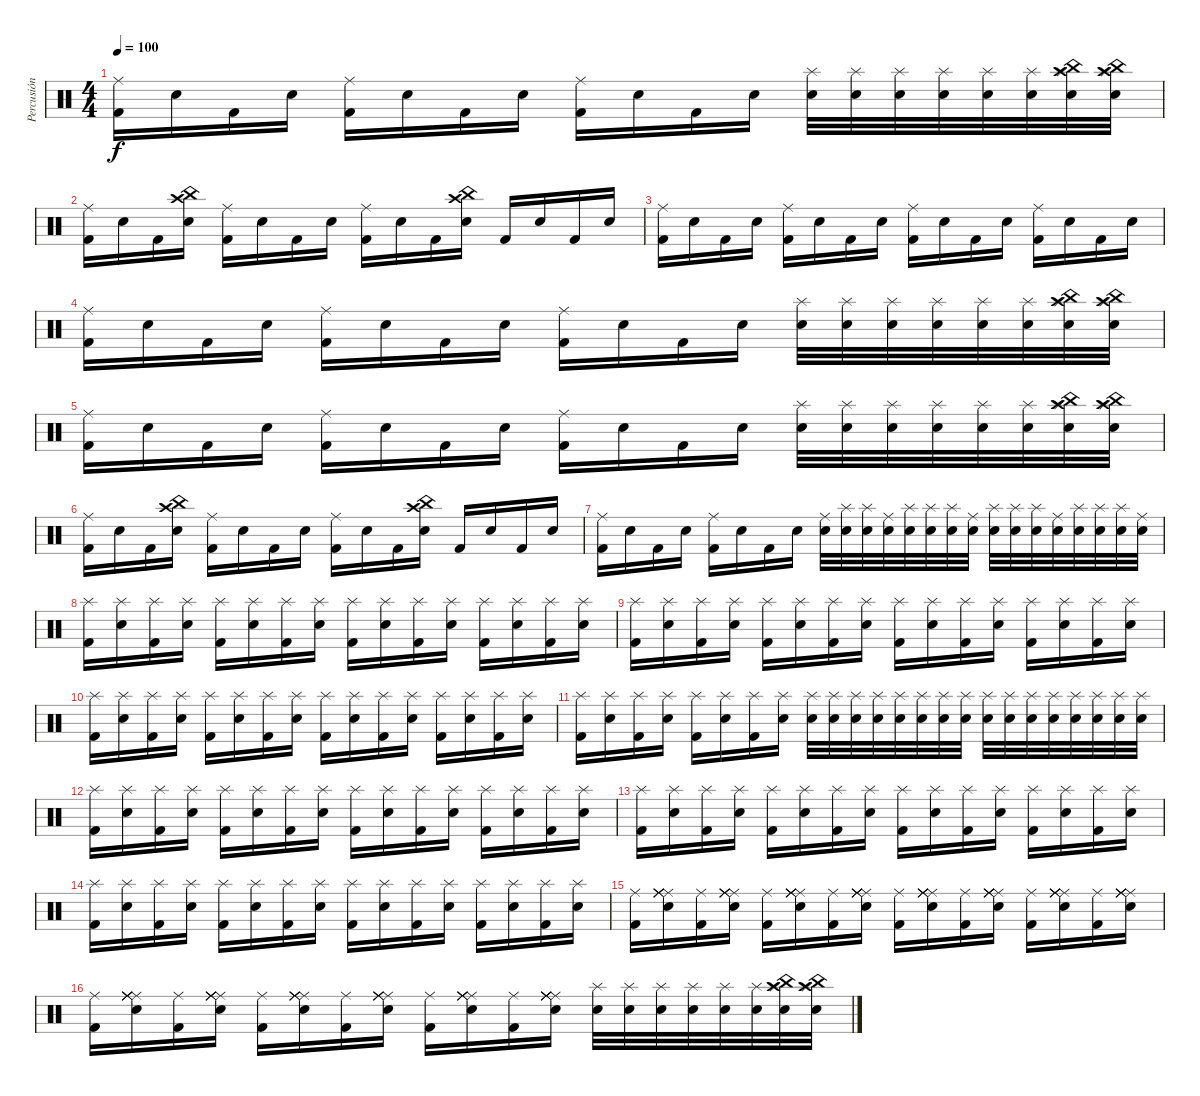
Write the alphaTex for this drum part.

\track ("Percusión" "Percusión") {instrument percussion}
\staff {score}
\articulation defaults
\ts (4 4)
\tempo 100
\clef neutral
\ks c
("Kick (hit) 2" "Ride (middle)").16{dy f} "Snare (hit) 2".16 "Kick (hit) 2".16 "Snare (hit) 2".16 ("Kick (hit) 2" "Ride (middle)").16 "Snare (hit) 2".16 "Kick (hit) 2".16 "Snare (hit) 2".16 ("Kick (hit) 2" "Ride (middle)").16 "Snare (hit) 2".16 "Kick (hit) 2".16 "Snare (hit) 2".16 ("Snare (hit) 2" "Splash (hit)").32 ("Electric Snare (hit)" "Splash (hit)").32 ("Snare (hit) 2" "Splash (hit)").32 ("Electric Snare (hit)" "Splash (hit)").32 ("Snare (hit) 2" "Splash (hit)").32 ("Electric Snare (hit)" "Splash (hit)").32 ("Snare (hit) 2" "Crash high (hit)" "China (hit)" "Splash (hit)").32 ("Electric Snare (hit)" "Crash high (hit)" "China (hit)" "Splash (hit)").32 |
("Kick (hit) 2" "Ride (middle)").16 "Snare (hit) 2".16 "Kick (hit) 2".16 ("Snare (hit) 2" "China (hit)" "Crash high (hit)").16 ("Kick (hit) 2" "Ride (middle)").16 "Snare (hit) 2".16 "Kick (hit) 2".16 "Snare (hit) 2".16 ("Kick (hit) 2" "Ride (middle)").16 "Snare (hit) 2".16 "Kick (hit) 2".16 ("Snare (hit) 2" "China (hit)" "Crash high (hit)").16 "Kick (hit) 2".16 "Snare (hit) 2".16 "Kick (hit) 2".16 "Snare (hit) 2".16 |
("Kick (hit) 2" "Ride (middle)").16 "Snare (hit) 2".16 "Kick (hit) 2".16 "Snare (hit) 2".16 ("Kick (hit) 2" "Ride (middle)").16 "Snare (hit) 2".16 "Kick (hit) 2".16 "Snare (hit) 2".16 ("Kick (hit) 2" "Ride (middle)").16 "Snare (hit) 2".16 "Kick (hit) 2".16 "Snare (hit) 2".16 ("Kick (hit) 2" "Ride (middle)").16 "Snare (hit) 2".16 "Kick (hit) 2".16 "Snare (hit) 2".16 |
("Kick (hit) 2" "Ride (middle)").16 "Snare (hit) 2".16 "Kick (hit) 2".16 "Snare (hit) 2".16 ("Kick (hit) 2" "Ride (middle)").16 "Snare (hit) 2".16 "Kick (hit) 2".16 "Snare (hit) 2".16 ("Kick (hit) 2" "Ride (middle)").16 "Snare (hit) 2".16 "Kick (hit) 2".16 "Snare (hit) 2".16 ("Snare (hit) 2" "Splash (hit)").32 ("Electric Snare (hit)" "Splash (hit)").32 ("Snare (hit) 2" "Splash (hit)").32 ("Electric Snare (hit)" "Splash (hit)").32 ("Snare (hit) 2" "Splash (hit)").32 ("Electric Snare (hit)" "Splash (hit)").32 ("Snare (hit) 2" "Crash high (hit)" "China (hit)" "Splash (hit)").32 ("Electric Snare (hit)" "Crash high (hit)" "China (hit)" "Splash (hit)").32 |
("Kick (hit) 2" "Ride (middle)").16 "Snare (hit) 2".16 "Kick (hit) 2".16 "Snare (hit) 2".16 ("Kick (hit) 2" "Ride (middle)").16 "Snare (hit) 2".16 "Kick (hit) 2".16 "Snare (hit) 2".16 ("Kick (hit) 2" "Ride (middle)").16 "Snare (hit) 2".16 "Kick (hit) 2".16 "Snare (hit) 2".16 ("Snare (hit) 2" "Splash (hit)").32 ("Electric Snare (hit)" "Splash (hit)").32 ("Snare (hit) 2" "Splash (hit)").32 ("Electric Snare (hit)" "Splash (hit)").32 ("Snare (hit) 2" "Splash (hit)").32 ("Electric Snare (hit)" "Splash (hit)").32 ("Snare (hit) 2" "Crash high (hit)" "China (hit)" "Splash (hit)").32 ("Electric Snare (hit)" "Crash high (hit)" "China (hit)" "Splash (hit)").32 |
("Kick (hit) 2" "Ride (middle)").16 "Snare (hit) 2".16 "Kick (hit) 2".16 ("Snare (hit) 2" "China (hit)" "Crash high (hit)").16 ("Kick (hit) 2" "Ride (middle)").16 "Snare (hit) 2".16 "Kick (hit) 2".16 "Snare (hit) 2".16 ("Kick (hit) 2" "Ride (middle)").16 "Snare (hit) 2".16 "Kick (hit) 2".16 ("Snare (hit) 2" "China (hit)" "Crash high (hit)").16 "Kick (hit) 2".16 "Snare (hit) 2".16 "Kick (hit) 2".16 "Snare (hit) 2".16 |
("Kick (hit) 2" "Ride (middle)").16 "Snare (hit) 2".16 "Kick (hit) 2".16 "Snare (hit) 2".16 ("Kick (hit) 2" "Ride (middle)").16 "Snare (hit) 2".16 "Kick (hit) 2".16 "Snare (hit) 2".16 ("Snare (hit) 2" "Ride (middle)").32 ("Electric Snare (hit)" "Splash (hit)").32 ("Snare (hit) 2" "Splash (hit)").32 ("Electric Snare (hit)" "Ride (middle)").32 ("Snare (hit) 2" "Splash (hit)").32 ("Electric Snare (hit)" "Splash (hit)").32 ("Snare (hit) 2" "Splash (hit)").32 ("Electric Snare (hit)" "Ride (middle)").32 ("Snare (hit) 2" "Splash (hit)").32 ("Electric Snare (hit)" "Splash (hit)").32 ("Snare (hit) 2" "Splash (hit)").32 ("Electric Snare (hit)" "Ride (middle)").32 ("Snare (hit) 2" "Splash (hit)").32 ("Electric Snare (hit)" "Splash (hit)").32 ("Snare (hit) 2" "Splash (hit)").32 ("Electric Snare (hit)" "Ride (middle)").32 |
("Kick (hit) 2" "Splash (hit)").16 ("Snare (hit) 2" "Splash (hit)").16 ("Kick (hit) 2" "Splash (hit)").16 ("Snare (hit) 2" "Splash (hit)").16 ("Kick (hit) 2" "Splash (hit)").16 ("Snare (hit) 2" "Splash (hit)").16 ("Kick (hit) 2" "Splash (hit)").16 ("Snare (hit) 2" "Splash (hit)").16 ("Kick (hit) 2" "Splash (hit)").16 ("Snare (hit) 2" "Splash (hit)").16 ("Kick (hit) 2" "Splash (hit)").16 ("Snare (hit) 2" "Splash (hit)").16 ("Kick (hit) 2" "Splash (hit)").16 ("Snare (hit) 2" "Splash (hit)").16 ("Kick (hit) 2" "Splash (hit)").16 ("Snare (hit) 2" "Splash (hit)").16 |
("Kick (hit) 2" "Splash (hit)").16 ("Snare (hit) 2" "Splash (hit)").16 ("Kick (hit) 2" "Splash (hit)").16 ("Snare (hit) 2" "Splash (hit)").16 ("Kick (hit) 2" "Splash (hit)").16 ("Snare (hit) 2" "Splash (hit)").16 ("Kick (hit) 2" "Splash (hit)").16 ("Snare (hit) 2" "Splash (hit)").16 ("Kick (hit) 2" "Splash (hit)").16 ("Snare (hit) 2" "Splash (hit)").16 ("Kick (hit) 2" "Splash (hit)").16 ("Snare (hit) 2" "Splash (hit)").16 ("Kick (hit) 2" "Splash (hit)").16 ("Snare (hit) 2" "Splash (hit)").16 ("Kick (hit) 2" "Splash (hit)").16 ("Snare (hit) 2" "Splash (hit)").16 |
("Kick (hit) 2" "Splash (hit)").16 ("Snare (hit) 2" "Splash (hit)").16 ("Kick (hit) 2" "Splash (hit)").16 ("Snare (hit) 2" "Splash (hit)").16 ("Kick (hit) 2" "Splash (hit)").16 ("Snare (hit) 2" "Splash (hit)").16 ("Kick (hit) 2" "Splash (hit)").16 ("Snare (hit) 2" "Splash (hit)").16 ("Kick (hit) 2" "Splash (hit)").16 ("Snare (hit) 2" "Splash (hit)").16 ("Kick (hit) 2" "Splash (hit)").16 ("Snare (hit) 2" "Splash (hit)").16 ("Kick (hit) 2" "Splash (hit)").16 ("Snare (hit) 2" "Splash (hit)").16 ("Kick (hit) 2" "Splash (hit)").16 ("Snare (hit) 2" "Splash (hit)").16 |
("Kick (hit) 2" "Splash (hit)").16 ("Snare (hit) 2" "Splash (hit)").16 ("Kick (hit) 2" "Splash (hit)").16 ("Snare (hit) 2" "Splash (hit)").16 ("Kick (hit) 2" "Splash (hit)").16 ("Snare (hit) 2" "Splash (hit)").16 ("Kick (hit) 2" "Splash (hit)").16 ("Snare (hit) 2" "Splash (hit)").16 ("Snare (hit) 2" "Splash (hit)").32 ("Electric Snare (hit)" "Splash (hit)").32 ("Snare (hit) 2" "Splash (hit)").32 ("Electric Snare (hit)" "Splash (hit)").32 ("Snare (hit) 2" "Splash (hit)").32 ("Electric Snare (hit)" "Splash (hit)").32 ("Snare (hit) 2" "Splash (hit)").32 ("Electric Snare (hit)" "Splash (hit)").32 ("Snare (hit) 2" "Splash (hit)").32 ("Electric Snare (hit)" "Splash (hit)").32 ("Snare (hit) 2" "Splash (hit)").32 ("Electric Snare (hit)" "Splash (hit)").32 ("Snare (hit) 2" "Splash (hit)").32 ("Electric Snare (hit)" "Splash (hit)").32 ("Snare (hit) 2" "Splash (hit)").32 ("Electric Snare (hit)" "Splash (hit)").32 |
("Kick (hit) 2" "Splash (hit)").16 ("Snare (hit) 2" "Splash (hit)").16 ("Kick (hit) 2" "Splash (hit)").16 ("Snare (hit) 2" "Splash (hit)").16 ("Kick (hit) 2" "Splash (hit)").16 ("Snare (hit) 2" "Splash (hit)").16 ("Kick (hit) 2" "Splash (hit)").16 ("Snare (hit) 2" "Splash (hit)").16 ("Kick (hit) 2" "Splash (hit)").16 ("Snare (hit) 2" "Splash (hit)").16 ("Kick (hit) 2" "Splash (hit)").16 ("Snare (hit) 2" "Splash (hit)").16 ("Kick (hit) 2" "Splash (hit)").16 ("Snare (hit) 2" "Splash (hit)").16 ("Kick (hit) 2" "Splash (hit)").16 ("Snare (hit) 2" "Splash (hit)").16 |
("Kick (hit) 2" "Splash (hit)").16 ("Snare (hit) 2" "Splash (hit)").16 ("Kick (hit) 2" "Splash (hit)").16 ("Snare (hit) 2" "Splash (hit)").16 ("Kick (hit) 2" "Splash (hit)").16 ("Snare (hit) 2" "Splash (hit)").16 ("Kick (hit) 2" "Splash (hit)").16 ("Snare (hit) 2" "Splash (hit)").16 ("Kick (hit) 2" "Splash (hit)").16 ("Snare (hit) 2" "Splash (hit)").16 ("Kick (hit) 2" "Splash (hit)").16 ("Snare (hit) 2" "Splash (hit)").16 ("Kick (hit) 2" "Splash (hit)").16 ("Snare (hit) 2" "Splash (hit)").16 ("Kick (hit) 2" "Splash (hit)").16 ("Snare (hit) 2" "Splash (hit)").16 |
("Kick (hit) 2" "Splash (hit)").16 ("Snare (hit) 2" "Splash (hit)").16 ("Kick (hit) 2" "Splash (hit)").16 ("Snare (hit) 2" "Splash (hit)").16 ("Kick (hit) 2" "Splash (hit)").16 ("Snare (hit) 2" "Splash (hit)").16 ("Kick (hit) 2" "Splash (hit)").16 ("Snare (hit) 2" "Splash (hit)").16 ("Kick (hit) 2" "Splash (hit)").16 ("Snare (hit) 2" "Splash (hit)").16 ("Kick (hit) 2" "Splash (hit)").16 ("Snare (hit) 2" "Splash (hit)").16 ("Kick (hit) 2" "Splash (hit)").16 ("Snare (hit) 2" "Splash (hit)").16 ("Kick (hit) 2" "Splash (hit)").16 ("Snare (hit) 2" "Splash (hit)").16 |
("Kick (hit) 2" "Ride (middle)").16 ("Snare (hit) 2" "Ride (middle)" "Ride (middle)" "Ride (middle)" "Ride (middle)" "Ride (middle)").16 ("Kick (hit) 2" "Ride (middle)").16 ("Snare (hit) 2" "Ride (middle)" "Ride (middle)" "Ride (middle)" "Ride (middle)" "Ride (middle)").16 ("Kick (hit) 2" "Ride (middle)").16 ("Snare (hit) 2" "Ride (middle)" "Ride (middle)" "Ride (middle)" "Ride (middle)" "Ride (middle)").16 ("Kick (hit) 2" "Ride (middle)").16 ("Snare (hit) 2" "Ride (middle)" "Ride (middle)" "Ride (middle)" "Ride (middle)" "Ride (middle)").16 ("Kick (hit) 2" "Ride (middle)").16 ("Snare (hit) 2" "Ride (middle)" "Ride (middle)" "Ride (middle)" "Ride (middle)" "Ride (middle)").16 ("Kick (hit) 2" "Ride (middle)").16 ("Snare (hit) 2" "Ride (middle)" "Ride (middle)" "Ride (middle)" "Ride (middle)" "Ride (middle)").16 ("Kick (hit) 2" "Ride (middle)").16 ("Snare (hit) 2" "Ride (middle)" "Ride (middle)" "Ride (middle)" "Ride (middle)" "Ride (middle)").16 ("Kick (hit) 2" "Ride (middle)").16 ("Snare (hit) 2" "Ride (middle)" "Ride (middle)" "Ride (middle)" "Ride (middle)" "Ride (middle)").16 |
("Kick (hit) 2" "Ride (middle)").16 ("Snare (hit) 2" "Ride (middle)" "Ride (middle)" "Ride (middle)" "Ride (middle)" "Ride (middle)").16 ("Kick (hit) 2" "Ride (middle)").16 ("Snare (hit) 2" "Ride (middle)" "Ride (middle)" "Ride (middle)" "Ride (middle)" "Ride (middle)").16 ("Kick (hit) 2" "Ride (middle)").16 ("Snare (hit) 2" "Ride (middle)" "Ride (middle)" "Ride (middle)" "Ride (middle)" "Ride (middle)").16 ("Kick (hit) 2" "Ride (middle)").16 ("Snare (hit) 2" "Ride (middle)" "Ride (middle)" "Ride (middle)" "Ride (middle)" "Ride (middle)").16 ("Kick (hit) 2" "Ride (middle)").16 ("Snare (hit) 2" "Ride (middle)" "Ride (middle)" "Ride (middle)" "Ride (middle)" "Ride (middle)").16 ("Kick (hit) 2" "Ride (middle)").16 ("Snare (hit) 2" "Ride (middle)" "Ride (middle)" "Ride (middle)" "Ride (middle)" "Ride (middle)").16 ("Snare (hit) 2" "Splash (hit)").32 ("Electric Snare (hit)" "Splash (hit)").32 ("Snare (hit) 2" "Splash (hit)").32 ("Electric Snare (hit)" "Splash (hit)").32 ("Snare (hit) 2" "Splash (hit)").32 ("Electric Snare (hit)" "Splash (hit)").32 ("Snare (hit) 2" "Crash high (hit)" "China (hit)" "Splash (hit)").32 ("Electric Snare (hit)" "Crash high (hit)" "China (hit)" "Splash (hit)").32
